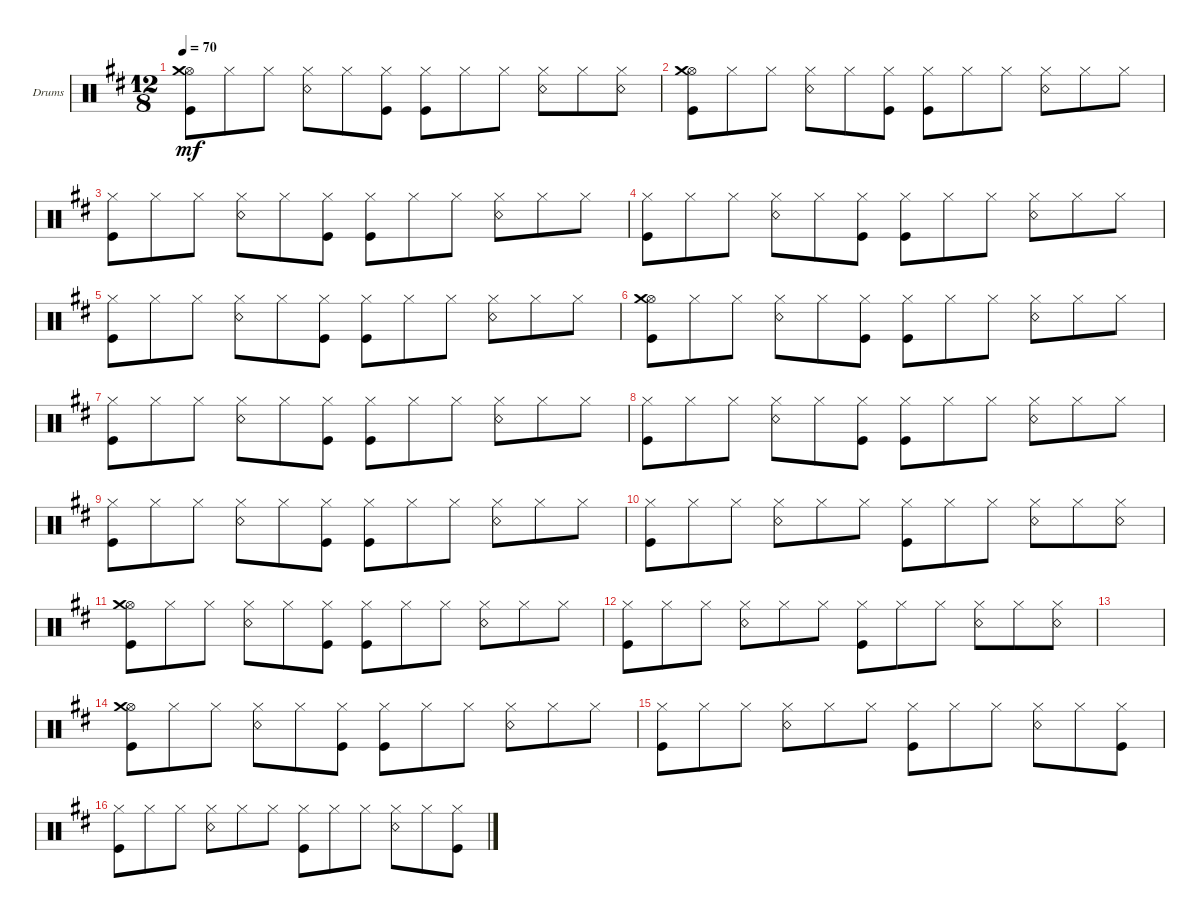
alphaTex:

\defaultSystemsLayout 4
\bracketExtendMode groupsimilarinstruments
\firstSystemTrackNameOrientation horizontal
\otherSystemsTrackNameOrientation horizontal
\track ("Drumkit" "Drums") {instrument percussion}
\staff {score}
\articulation defaults
\ts (12 8)
\tempo 70
\clef neutral
\ks d
("Hi-Hat (open)" "Crash medium (hit)" "Kick (hit)").8{dy mf} "Hi-Hat (closed)".8 "Hi-Hat (closed)".8 ("Hi-Hat (closed)" "Snare (rim shot)").8 "Hi-Hat (closed)".8 ("Hi-Hat (closed)" "Kick (hit)").8 ("Hi-Hat (closed)" "Kick (hit)").8 "Hi-Hat (closed)".8 "Hi-Hat (closed)".8 ("Hi-Hat (closed)" "Snare (rim shot)").8 "Hi-Hat (closed)".8 ("Hi-Hat (closed)" "Snare (rim shot)").8 |
("Hi-Hat (open)" "Crash medium (hit)" "Kick (hit)").8 "Hi-Hat (closed)".8 "Hi-Hat (closed)".8 ("Hi-Hat (closed)" "Snare (rim shot)").8 "Hi-Hat (closed)".8 ("Hi-Hat (closed)" "Kick (hit)").8 ("Hi-Hat (closed)" "Kick (hit)").8 "Hi-Hat (closed)".8 "Hi-Hat (closed)".8 ("Hi-Hat (closed)" "Snare (rim shot)").8 "Hi-Hat (closed)".8 "Hi-Hat (closed)".8 |
("Hi-Hat (closed)" "Kick (hit)").8 "Hi-Hat (closed)".8 "Hi-Hat (closed)".8 ("Hi-Hat (closed)" "Snare (rim shot)").8 "Hi-Hat (closed)".8 ("Hi-Hat (closed)" "Kick (hit)").8 ("Hi-Hat (closed)" "Kick (hit)").8 "Hi-Hat (closed)".8 "Hi-Hat (closed)".8 ("Hi-Hat (closed)" "Snare (rim shot)").8 "Hi-Hat (closed)".8 "Hi-Hat (closed)".8 |
("Hi-Hat (closed)" "Kick (hit)").8 "Hi-Hat (closed)".8 "Hi-Hat (closed)".8 ("Hi-Hat (closed)" "Snare (rim shot)").8 "Hi-Hat (closed)".8 ("Hi-Hat (closed)" "Kick (hit)").8 ("Hi-Hat (closed)" "Kick (hit)").8 "Hi-Hat (closed)".8 "Hi-Hat (closed)".8 ("Hi-Hat (closed)" "Snare (rim shot)").8 "Hi-Hat (closed)".8 "Hi-Hat (closed)".8 |
("Hi-Hat (closed)" "Kick (hit)").8 "Hi-Hat (closed)".8 "Hi-Hat (closed)".8 ("Hi-Hat (closed)" "Snare (rim shot)").8 "Hi-Hat (closed)".8 ("Hi-Hat (closed)" "Kick (hit)").8 ("Hi-Hat (closed)" "Kick (hit)").8 "Hi-Hat (closed)".8 "Hi-Hat (closed)".8 ("Hi-Hat (closed)" "Snare (rim shot)").8 "Hi-Hat (closed)".8 "Hi-Hat (closed)".8 |
("Hi-Hat (open)" "Crash medium (hit)" "Kick (hit)").8 "Hi-Hat (closed)".8 "Hi-Hat (closed)".8 ("Hi-Hat (closed)" "Snare (rim shot)").8 "Hi-Hat (closed)".8 ("Hi-Hat (closed)" "Kick (hit)").8 ("Hi-Hat (closed)" "Kick (hit)").8 "Hi-Hat (closed)".8 "Hi-Hat (closed)".8 ("Hi-Hat (closed)" "Snare (rim shot)").8 "Hi-Hat (closed)".8 "Hi-Hat (closed)".8 |
("Hi-Hat (closed)" "Kick (hit)").8 "Hi-Hat (closed)".8 "Hi-Hat (closed)".8 ("Hi-Hat (closed)" "Snare (rim shot)").8 "Hi-Hat (closed)".8 ("Hi-Hat (closed)" "Kick (hit)").8 ("Hi-Hat (closed)" "Kick (hit)").8 "Hi-Hat (closed)".8 "Hi-Hat (closed)".8 ("Hi-Hat (closed)" "Snare (rim shot)").8 "Hi-Hat (closed)".8 "Hi-Hat (closed)".8 |
("Hi-Hat (closed)" "Kick (hit)").8 "Hi-Hat (closed)".8 "Hi-Hat (closed)".8 ("Hi-Hat (closed)" "Snare (rim shot)").8 "Hi-Hat (closed)".8 ("Hi-Hat (closed)" "Kick (hit)").8 ("Hi-Hat (closed)" "Kick (hit)").8 "Hi-Hat (closed)".8 "Hi-Hat (closed)".8 ("Hi-Hat (closed)" "Snare (rim shot)").8 "Hi-Hat (closed)".8 "Hi-Hat (closed)".8 |
("Hi-Hat (closed)" "Kick (hit)").8 "Hi-Hat (closed)".8 "Hi-Hat (closed)".8 ("Hi-Hat (closed)" "Snare (rim shot)").8 "Hi-Hat (closed)".8 ("Hi-Hat (closed)" "Kick (hit)").8 ("Hi-Hat (closed)" "Kick (hit)").8 "Hi-Hat (closed)".8 "Hi-Hat (closed)".8 ("Hi-Hat (closed)" "Snare (rim shot)").8 "Hi-Hat (closed)".8 "Hi-Hat (closed)".8 |
("Hi-Hat (closed)" "Kick (hit)").8 "Hi-Hat (closed)".8 "Hi-Hat (closed)".8 ("Hi-Hat (closed)" "Snare (rim shot)").8 "Hi-Hat (closed)".8 "Hi-Hat (closed)".8 ("Hi-Hat (closed)" "Kick (hit)").8 "Hi-Hat (closed)".8 "Hi-Hat (closed)".8 ("Hi-Hat (closed)" "Snare (rim shot)").8 "Hi-Hat (closed)".8 ("Hi-Hat (closed)" "Snare (rim shot)").8 |
("Hi-Hat (open)" "Kick (hit)" "Crash medium (hit)").8 "Hi-Hat (closed)".8 "Hi-Hat (closed)".8 ("Hi-Hat (closed)" "Snare (rim shot)").8 "Hi-Hat (closed)".8 ("Hi-Hat (closed)" "Kick (hit)").8 ("Hi-Hat (closed)" "Kick (hit)").8 "Hi-Hat (closed)".8 "Hi-Hat (closed)".8 ("Hi-Hat (closed)" "Snare (rim shot)").8 "Hi-Hat (closed)".8 "Hi-Hat (closed)".8 |
("Hi-Hat (closed)" "Kick (hit)").8 "Hi-Hat (closed)".8 "Hi-Hat (closed)".8 ("Hi-Hat (closed)" "Snare (rim shot)").8 "Hi-Hat (closed)".8 "Hi-Hat (closed)".8 ("Hi-Hat (closed)" "Kick (hit)").8 "Hi-Hat (closed)".8 "Hi-Hat (closed)".8 ("Hi-Hat (closed)" "Snare (rim shot)").8 "Hi-Hat (closed)".8 ("Hi-Hat (closed)" "Snare (rim shot)").8 |
|
("Hi-Hat (open)" "Crash medium (hit)" "Kick (hit)").8 "Hi-Hat (closed)".8 "Hi-Hat (closed)".8 ("Hi-Hat (closed)" "Snare (rim shot)").8 "Hi-Hat (closed)".8 ("Hi-Hat (closed)" "Kick (hit)").8 ("Hi-Hat (closed)" "Kick (hit)").8 "Hi-Hat (closed)".8 "Hi-Hat (closed)".8 ("Hi-Hat (closed)" "Snare (rim shot)").8 "Hi-Hat (closed)".8 "Hi-Hat (closed)".8 |
("Hi-Hat (closed)" "Kick (hit)").8 "Hi-Hat (closed)".8 "Hi-Hat (closed)".8 ("Hi-Hat (closed)" "Snare (rim shot)").8 "Hi-Hat (closed)".8 "Hi-Hat (closed)".8 ("Hi-Hat (closed)" "Kick (hit)").8 "Hi-Hat (closed)".8 "Hi-Hat (closed)".8 ("Hi-Hat (closed)" "Snare (rim shot)").8 "Hi-Hat (closed)".8 ("Hi-Hat (closed)" "Kick (hit)").8 |
("Hi-Hat (closed)" "Kick (hit)").8 "Hi-Hat (closed)".8 "Hi-Hat (closed)".8 ("Hi-Hat (closed)" "Snare (rim shot)").8 "Hi-Hat (closed)".8 "Hi-Hat (closed)".8 ("Hi-Hat (closed)" "Kick (hit)").8 "Hi-Hat (closed)".8 "Hi-Hat (closed)".8 ("Snare (rim shot)" "Hi-Hat (closed)").8 "Hi-Hat (closed)".8 ("Hi-Hat (closed)" "Kick (hit)").8
